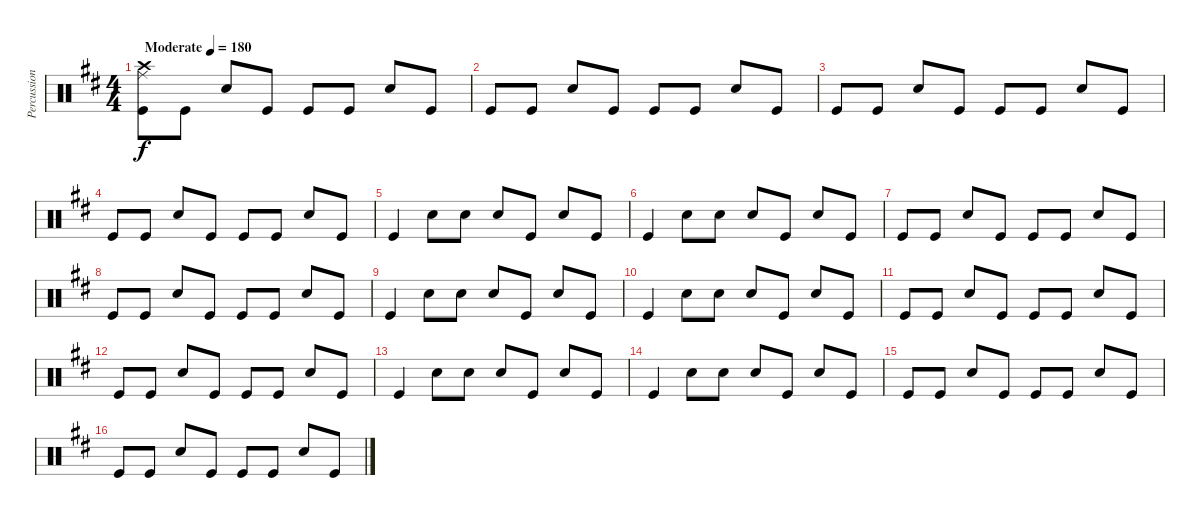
\track ("Percussion" "Percussion") {instrument percussion}
\staff {score}
\articulation defaults
\ts (4 4)
\tempo (180 "Moderate")
\clef neutral
\ks d
("Kick (hit)" "Crash high (hit)" "Ride (middle)").8{dy f} "Kick (hit)".8 "Snare (hit) 2".8 "Kick (hit)".8 "Kick (hit)".8 "Kick (hit)".8 "Snare (hit) 2".8 "Kick (hit)".8 |
"Kick (hit)".8 "Kick (hit)".8 "Snare (hit) 2".8 "Kick (hit)".8 "Kick (hit)".8 "Kick (hit)".8 "Snare (hit) 2".8 "Kick (hit)".8 |
"Kick (hit)".8 "Kick (hit)".8 "Snare (hit) 2".8 "Kick (hit)".8 "Kick (hit)".8 "Kick (hit)".8 "Snare (hit) 2".8 "Kick (hit)".8 |
"Kick (hit)".8 "Kick (hit)".8 "Snare (hit) 2".8 "Kick (hit)".8 "Kick (hit)".8 "Kick (hit)".8 "Snare (hit) 2".8 "Kick (hit)".8 |
"Kick (hit)".4 "Snare (hit) 2".8 "Snare (hit) 2".8 "Snare (hit) 2".8 "Kick (hit)".8 "Snare (hit) 2".8 "Kick (hit)".8 |
"Kick (hit)".4 "Snare (hit) 2".8 "Snare (hit) 2".8 "Snare (hit) 2".8 "Kick (hit)".8 "Snare (hit) 2".8 "Kick (hit)".8 |
"Kick (hit)".8 "Kick (hit)".8 "Snare (hit) 2".8 "Kick (hit)".8 "Kick (hit)".8 "Kick (hit)".8 "Snare (hit) 2".8 "Kick (hit)".8 |
"Kick (hit)".8 "Kick (hit)".8 "Snare (hit) 2".8 "Kick (hit)".8 "Kick (hit)".8 "Kick (hit)".8 "Snare (hit) 2".8 "Kick (hit)".8 |
"Kick (hit)".4 "Snare (hit) 2".8 "Snare (hit) 2".8 "Snare (hit) 2".8 "Kick (hit)".8 "Snare (hit) 2".8 "Kick (hit)".8 |
"Kick (hit)".4 "Snare (hit) 2".8 "Snare (hit) 2".8 "Snare (hit) 2".8 "Kick (hit)".8 "Snare (hit) 2".8 "Kick (hit)".8 |
"Kick (hit)".8 "Kick (hit)".8 "Snare (hit) 2".8 "Kick (hit)".8 "Kick (hit)".8 "Kick (hit)".8 "Snare (hit) 2".8 "Kick (hit)".8 |
"Kick (hit)".8 "Kick (hit)".8 "Snare (hit) 2".8 "Kick (hit)".8 "Kick (hit)".8 "Kick (hit)".8 "Snare (hit) 2".8 "Kick (hit)".8 |
"Kick (hit)".4 "Snare (hit) 2".8 "Snare (hit) 2".8 "Snare (hit) 2".8 "Kick (hit)".8 "Snare (hit) 2".8 "Kick (hit)".8 |
"Kick (hit)".4 "Snare (hit) 2".8 "Snare (hit) 2".8 "Snare (hit) 2".8 "Kick (hit)".8 "Snare (hit) 2".8 "Kick (hit)".8 |
"Kick (hit)".8 "Kick (hit)".8 "Snare (hit) 2".8 "Kick (hit)".8 "Kick (hit)".8 "Kick (hit)".8 "Snare (hit) 2".8 "Kick (hit)".8 |
"Kick (hit)".8 "Kick (hit)".8 "Snare (hit) 2".8 "Kick (hit)".8 "Kick (hit)".8 "Kick (hit)".8 "Snare (hit) 2".8 "Kick (hit)".8
